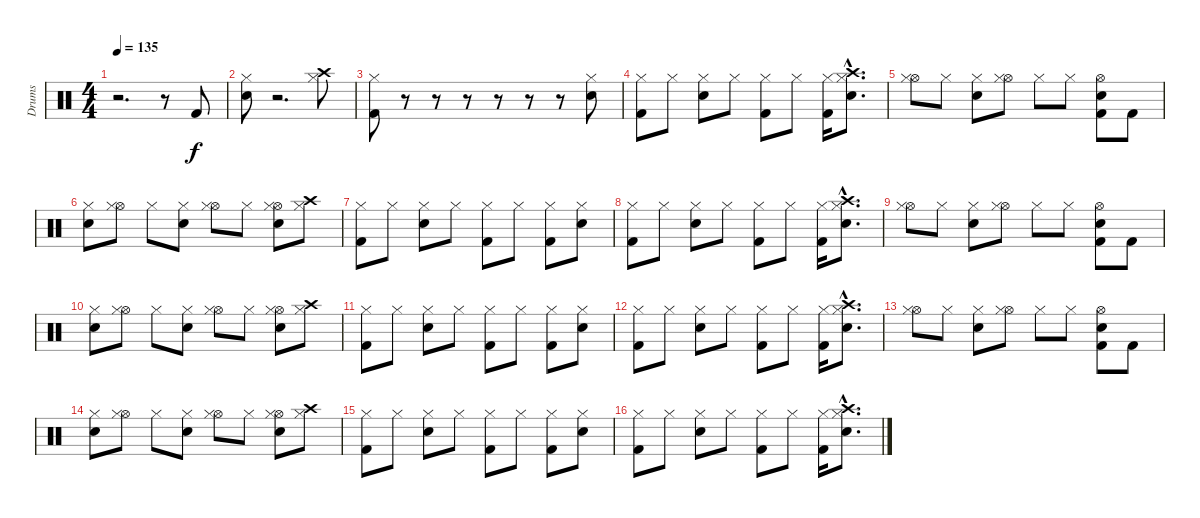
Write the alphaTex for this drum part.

\track ("Drums" "Drums") {instrument percussion}
\staff {score}
\articulation defaults
\ts (4 4)
\tempo 135
\clef neutral
\ks c
r.2{d dy f} r.8 "Kick (hit) 2".8 |
("Hi-Hat (closed)" "Snare (hit) 2").8 r.2{d} ("Hi-Hat (closed)" "Crash high (hit)").8 |
("Kick (hit) 2" "Hi-Hat (closed)").8 r.8 r.8 r.8 r.8 r.8 r.8 ("Snare (hit) 2" "Hi-Hat (closed)").8 |
("Kick (hit) 2" "Hi-Hat (closed)").8 "Hi-Hat (closed)".8 ("Snare (hit) 2" "Hi-Hat (closed)").8 "Hi-Hat (closed)".8 ("Kick (hit) 2" "Hi-Hat (closed)").8 "Hi-Hat (closed)".8 ("Kick (hit) 2" "Hi-Hat (closed)").16 ("Snare (hit) 2"{hac} "Hi-Hat (closed)"{hac} "Crash high (hit)"{hac}).8{d} |
("Hi-Hat (open)" "Hi-Hat (closed)").8 "Hi-Hat (closed)".8 ("Hi-Hat (closed)" "Snare (hit) 2").8 ("Hi-Hat (open)" "Hi-Hat (closed)").8 "Hi-Hat (closed)".8 "Hi-Hat (closed)".8 ("Hi-Hat (open)" "Kick (hit) 2" "Snare (hit) 2").8 "Kick (hit) 2".8 |
("Hi-Hat (closed)" "Snare (hit) 2").8 ("Hi-Hat (open)" "Hi-Hat (closed)").8 "Hi-Hat (closed)".8 ("Hi-Hat (closed)" "Snare (hit) 2").8 ("Hi-Hat (open)" "Hi-Hat (closed)").8 "Hi-Hat (closed)".8 ("Hi-Hat (open)" "Hi-Hat (closed)" "Snare (hit) 2").8 ("Hi-Hat (closed)" "Crash high (hit)").8 |
("Kick (hit) 2" "Hi-Hat (closed)").8 "Hi-Hat (closed)".8 ("Snare (hit) 2" "Hi-Hat (closed)").8 "Hi-Hat (closed)".8 ("Kick (hit) 2" "Hi-Hat (closed)").8 "Hi-Hat (closed)".8 ("Kick (hit) 2" "Hi-Hat (closed)").8 ("Snare (hit) 2" "Hi-Hat (closed)").8 |
("Kick (hit) 2" "Hi-Hat (closed)").8 "Hi-Hat (closed)".8 ("Snare (hit) 2" "Hi-Hat (closed)").8 "Hi-Hat (closed)".8 ("Kick (hit) 2" "Hi-Hat (closed)").8 "Hi-Hat (closed)".8 ("Kick (hit) 2" "Hi-Hat (closed)").16 ("Snare (hit) 2"{hac} "Hi-Hat (closed)"{hac} "Crash high (hit)"{hac}).8{d} |
("Hi-Hat (open)" "Hi-Hat (closed)").8 "Hi-Hat (closed)".8 ("Hi-Hat (closed)" "Snare (hit) 2").8 ("Hi-Hat (open)" "Hi-Hat (closed)").8 "Hi-Hat (closed)".8 "Hi-Hat (closed)".8 ("Hi-Hat (open)" "Kick (hit) 2" "Snare (hit) 2").8 "Kick (hit) 2".8 |
("Hi-Hat (closed)" "Snare (hit) 2").8 ("Hi-Hat (open)" "Hi-Hat (closed)").8 "Hi-Hat (closed)".8 ("Hi-Hat (closed)" "Snare (hit) 2").8 ("Hi-Hat (open)" "Hi-Hat (closed)").8 "Hi-Hat (closed)".8 ("Hi-Hat (open)" "Hi-Hat (closed)" "Snare (hit) 2").8 ("Hi-Hat (closed)" "Crash high (hit)").8 |
("Kick (hit) 2" "Hi-Hat (closed)").8 "Hi-Hat (closed)".8 ("Snare (hit) 2" "Hi-Hat (closed)").8 "Hi-Hat (closed)".8 ("Kick (hit) 2" "Hi-Hat (closed)").8 "Hi-Hat (closed)".8 ("Kick (hit) 2" "Hi-Hat (closed)").8 ("Snare (hit) 2" "Hi-Hat (closed)").8 |
("Kick (hit) 2" "Hi-Hat (closed)").8 "Hi-Hat (closed)".8 ("Snare (hit) 2" "Hi-Hat (closed)").8 "Hi-Hat (closed)".8 ("Kick (hit) 2" "Hi-Hat (closed)").8 "Hi-Hat (closed)".8 ("Kick (hit) 2" "Hi-Hat (closed)").16 ("Snare (hit) 2"{hac} "Hi-Hat (closed)"{hac} "Crash high (hit)"{hac}).8{d} |
("Hi-Hat (open)" "Hi-Hat (closed)").8 "Hi-Hat (closed)".8 ("Hi-Hat (closed)" "Snare (hit) 2").8 ("Hi-Hat (open)" "Hi-Hat (closed)").8 "Hi-Hat (closed)".8 "Hi-Hat (closed)".8 ("Hi-Hat (open)" "Kick (hit) 2" "Snare (hit) 2").8 "Kick (hit) 2".8 |
("Hi-Hat (closed)" "Snare (hit) 2").8 ("Hi-Hat (open)" "Hi-Hat (closed)").8 "Hi-Hat (closed)".8 ("Hi-Hat (closed)" "Snare (hit) 2").8 ("Hi-Hat (open)" "Hi-Hat (closed)").8 "Hi-Hat (closed)".8 ("Hi-Hat (open)" "Hi-Hat (closed)" "Snare (hit) 2").8 ("Hi-Hat (closed)" "Crash high (hit)").8 |
("Kick (hit) 2" "Hi-Hat (closed)").8 "Hi-Hat (closed)".8 ("Snare (hit) 2" "Hi-Hat (closed)").8 "Hi-Hat (closed)".8 ("Kick (hit) 2" "Hi-Hat (closed)").8 "Hi-Hat (closed)".8 ("Kick (hit) 2" "Hi-Hat (closed)").8 ("Snare (hit) 2" "Hi-Hat (closed)").8 |
("Kick (hit) 2" "Hi-Hat (closed)").8 "Hi-Hat (closed)".8 ("Snare (hit) 2" "Hi-Hat (closed)").8 "Hi-Hat (closed)".8 ("Kick (hit) 2" "Hi-Hat (closed)").8 "Hi-Hat (closed)".8 ("Kick (hit) 2" "Hi-Hat (closed)").16 ("Snare (hit) 2"{hac} "Hi-Hat (closed)"{hac} "Crash high (hit)"{hac}).8{d}
